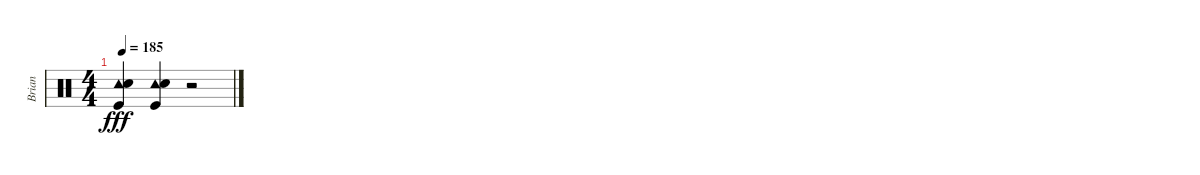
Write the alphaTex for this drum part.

\track ("Brian" "Brian") {instrument percussion}
\staff {score}
\articulation defaults
\ts (4 4)
\tempo 185
\clef neutral
\ks c
("Tambourine (hit)" "Electric Snare (hit)" "Kick (hit)").4{dy fff} ("Tambourine (hit)" "Electric Snare (hit)" "Kick (hit)").4 r.2
